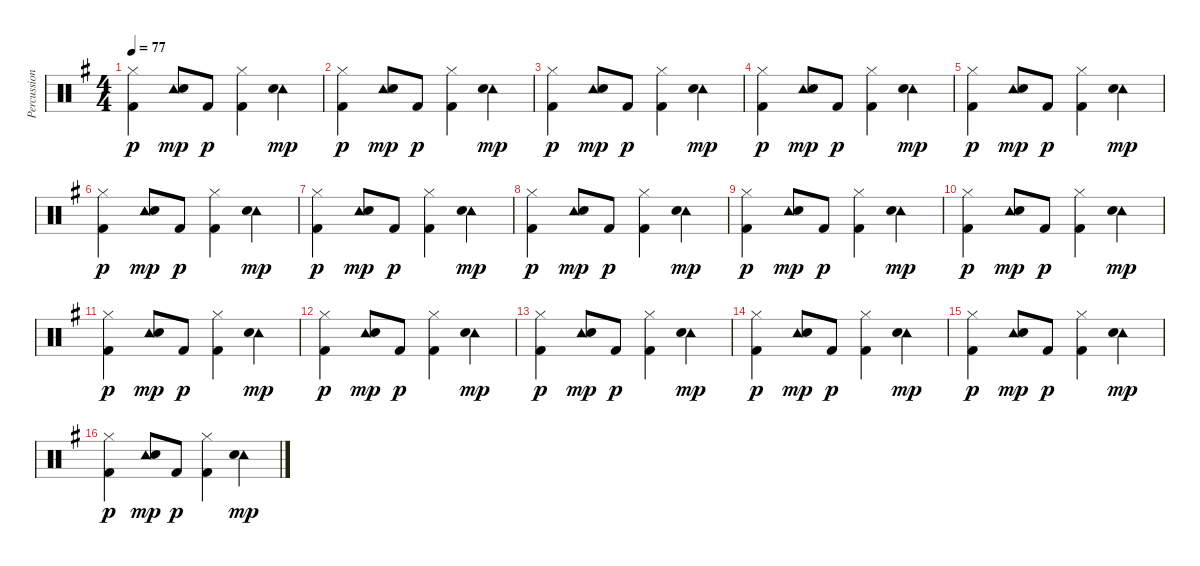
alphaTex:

\track ("Percussion" "Percussion") {instrument percussion}
\staff {score}
\articulation defaults
\ts (4 4)
\tempo 77
\clef neutral
\ks g
("Hi-Hat (closed)" "Kick (hit) 2").4{dy p} ("Tambourine (hit)" "Snare (hit) 2").8{dy mp} "Kick (hit) 2".8{dy p} ("Hi-Hat (closed)" "Kick (hit) 2").4 ("Tambourine (hit)" "Snare (hit) 2").4{dy mp} |
("Hi-Hat (closed)" "Kick (hit) 2").4{dy p} ("Tambourine (hit)" "Snare (hit) 2").8{dy mp} "Kick (hit) 2".8{dy p} ("Hi-Hat (closed)" "Kick (hit) 2").4 ("Tambourine (hit)" "Snare (hit) 2").4{dy mp} |
("Hi-Hat (closed)" "Kick (hit) 2").4{dy p} ("Tambourine (hit)" "Snare (hit) 2").8{dy mp} "Kick (hit) 2".8{dy p} ("Hi-Hat (closed)" "Kick (hit) 2").4 ("Tambourine (hit)" "Snare (hit) 2").4{dy mp} |
("Hi-Hat (closed)" "Kick (hit) 2").4{dy p} ("Tambourine (hit)" "Snare (hit) 2").8{dy mp} "Kick (hit) 2".8{dy p} ("Hi-Hat (closed)" "Kick (hit) 2").4 ("Tambourine (hit)" "Snare (hit) 2").4{dy mp} |
("Hi-Hat (closed)" "Kick (hit) 2").4{dy p} ("Tambourine (hit)" "Snare (hit) 2").8{dy mp} "Kick (hit) 2".8{dy p} ("Hi-Hat (closed)" "Kick (hit) 2").4 ("Tambourine (hit)" "Snare (hit) 2").4{dy mp} |
("Hi-Hat (closed)" "Kick (hit) 2").4{dy p} ("Tambourine (hit)" "Snare (hit) 2").8{dy mp} "Kick (hit) 2".8{dy p} ("Hi-Hat (closed)" "Kick (hit) 2").4 ("Tambourine (hit)" "Snare (hit) 2").4{dy mp} |
("Hi-Hat (closed)" "Kick (hit) 2").4{dy p} ("Tambourine (hit)" "Snare (hit) 2").8{dy mp} "Kick (hit) 2".8{dy p} ("Hi-Hat (closed)" "Kick (hit) 2").4 ("Tambourine (hit)" "Snare (hit) 2").4{dy mp} |
("Hi-Hat (closed)" "Kick (hit) 2").4{dy p} ("Tambourine (hit)" "Snare (hit) 2").8{dy mp} "Kick (hit) 2".8{dy p} ("Hi-Hat (closed)" "Kick (hit) 2").4 ("Tambourine (hit)" "Snare (hit) 2").4{dy mp} |
("Hi-Hat (closed)" "Kick (hit) 2").4{dy p} ("Tambourine (hit)" "Snare (hit) 2").8{dy mp} "Kick (hit) 2".8{dy p} ("Hi-Hat (closed)" "Kick (hit) 2").4 ("Tambourine (hit)" "Snare (hit) 2").4{dy mp} |
("Hi-Hat (closed)" "Kick (hit) 2").4{dy p} ("Tambourine (hit)" "Snare (hit) 2").8{dy mp} "Kick (hit) 2".8{dy p} ("Hi-Hat (closed)" "Kick (hit) 2").4 ("Tambourine (hit)" "Snare (hit) 2").4{dy mp} |
("Hi-Hat (closed)" "Kick (hit) 2").4{dy p} ("Tambourine (hit)" "Snare (hit) 2").8{dy mp} "Kick (hit) 2".8{dy p} ("Hi-Hat (closed)" "Kick (hit) 2").4 ("Tambourine (hit)" "Snare (hit) 2").4{dy mp} |
("Hi-Hat (closed)" "Kick (hit) 2").4{dy p} ("Tambourine (hit)" "Snare (hit) 2").8{dy mp} "Kick (hit) 2".8{dy p} ("Hi-Hat (closed)" "Kick (hit) 2").4 ("Tambourine (hit)" "Snare (hit) 2").4{dy mp} |
("Hi-Hat (closed)" "Kick (hit) 2").4{dy p} ("Tambourine (hit)" "Snare (hit) 2").8{dy mp} "Kick (hit) 2".8{dy p} ("Hi-Hat (closed)" "Kick (hit) 2").4 ("Tambourine (hit)" "Snare (hit) 2").4{dy mp} |
("Hi-Hat (closed)" "Kick (hit) 2").4{dy p} ("Tambourine (hit)" "Snare (hit) 2").8{dy mp} "Kick (hit) 2".8{dy p} ("Hi-Hat (closed)" "Kick (hit) 2").4 ("Tambourine (hit)" "Snare (hit) 2").4{dy mp} |
("Hi-Hat (closed)" "Kick (hit) 2").4{dy p} ("Tambourine (hit)" "Snare (hit) 2").8{dy mp} "Kick (hit) 2".8{dy p} ("Hi-Hat (closed)" "Kick (hit) 2").4 ("Tambourine (hit)" "Snare (hit) 2").4{dy mp} |
("Hi-Hat (closed)" "Kick (hit) 2").4{dy p} ("Tambourine (hit)" "Snare (hit) 2").8{dy mp} "Kick (hit) 2".8{dy p} ("Hi-Hat (closed)" "Kick (hit) 2").4 ("Tambourine (hit)" "Snare (hit) 2").4{dy mp}
